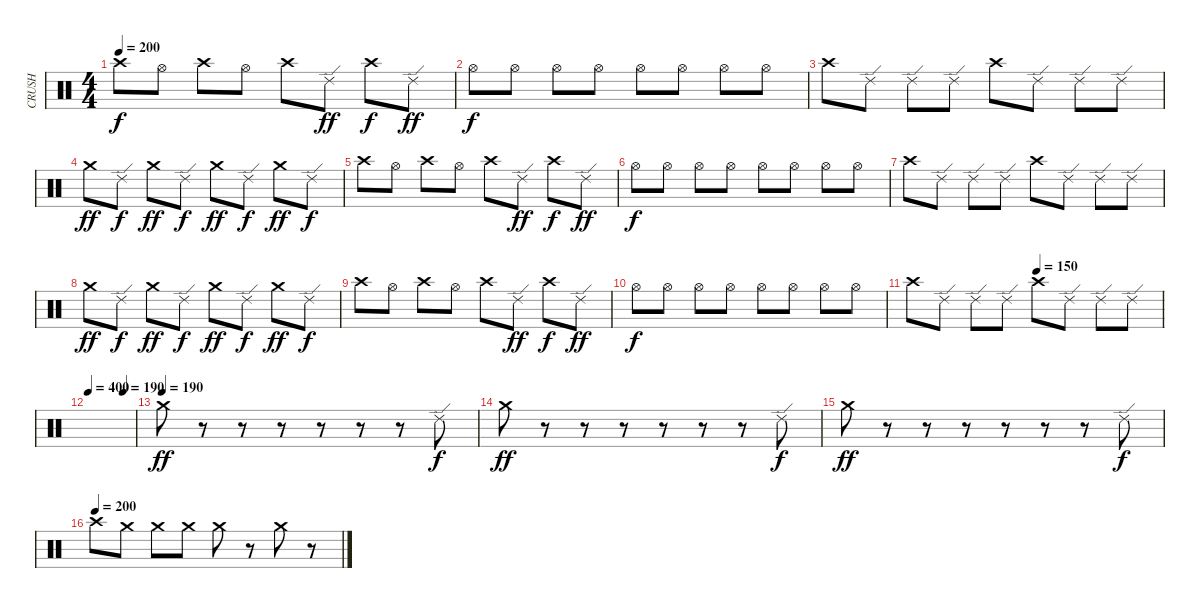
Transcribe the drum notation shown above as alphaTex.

\track ("CRUSH" "CRUSH") {instrument percussion}
\staff {score}
\articulation defaults
\ts (4 4)
\tempo 200
\clef neutral
\ks c "Crash high (hit)".8{dy f} "Hi-Hat (open)".8 "Crash high (hit)".8 "Hi-Hat (open)".8 "Crash high (hit)".8 "Ride (edge) 2".8{dy ff} "Crash high (hit)".8{dy f} "Ride (edge) 2".8{dy ff}
|
"Hi-Hat (open)".8{dy f} "Hi-Hat (open)".8 "Hi-Hat (open)".8 "Hi-Hat (open)".8 "Hi-Hat (open)".8 "Hi-Hat (open)".8 "Hi-Hat (open)".8 "Hi-Hat (open)".8 |
"Crash high (hit)".8 "Ride (edge) 2".8 "Ride (edge) 2".8 "Ride (edge) 2".8 "Crash high (hit)".8 "Ride (edge) 2".8 "Ride (edge) 2".8 "Ride (edge) 2".8 |
"Crash medium (hit)".8{dy ff} "Ride (edge) 2".8{dy f} "Crash medium (hit)".8{dy ff} "Ride (edge) 2".8{dy f} "Crash medium (hit)".8{dy ff} "Ride (edge) 2".8{dy f} "Crash medium (hit)".8{dy ff} "Ride (edge) 2".8{dy f} |
"Crash high (hit)".8 "Hi-Hat (open)".8 "Crash high (hit)".8 "Hi-Hat (open)".8 "Crash high (hit)".8 "Ride (edge) 2".8{dy ff} "Crash high (hit)".8{dy f} "Ride (edge) 2".8{dy ff} |
"Hi-Hat (open)".8{dy f} "Hi-Hat (open)".8 "Hi-Hat (open)".8 "Hi-Hat (open)".8 "Hi-Hat (open)".8 "Hi-Hat (open)".8 "Hi-Hat (open)".8 "Hi-Hat (open)".8 |
"Crash high (hit)".8 "Ride (edge) 2".8 "Ride (edge) 2".8 "Ride (edge) 2".8 "Crash high (hit)".8 "Ride (edge) 2".8 "Ride (edge) 2".8 "Ride (edge) 2".8 |
"Crash medium (hit)".8{dy ff} "Ride (edge) 2".8{dy f} "Crash medium (hit)".8{dy ff} "Ride (edge) 2".8{dy f} "Crash medium (hit)".8{dy ff} "Ride (edge) 2".8{dy f} "Crash medium (hit)".8{dy ff} "Ride (edge) 2".8{dy f} |
"Crash high (hit)".8 "Hi-Hat (open)".8 "Crash high (hit)".8 "Hi-Hat (open)".8 "Crash high (hit)".8 "Ride (edge) 2".8{dy ff} "Crash high (hit)".8{dy f} "Ride (edge) 2".8{dy ff} |
"Hi-Hat (open)".8{dy f} "Hi-Hat (open)".8 "Hi-Hat (open)".8 "Hi-Hat (open)".8 "Hi-Hat (open)".8 "Hi-Hat (open)".8 "Hi-Hat (open)".8 "Hi-Hat (open)".8 |
\tempo (150 0.5)
"Crash high (hit)".8 "Ride (edge) 2".8 "Ride (edge) 2".8 "Ride (edge) 2".8 "Crash high (hit)".8 "Ride (edge) 2".8 "Ride (edge) 2".8 "Ride (edge) 2".8 |
\tempo 400
\tempo (190 0.75)
|
\tempo (190)
"Crash medium (hit)".8{dy ff} r.8 r.8 r.8 r.8 r.8 r.8 "Ride (edge) 2".8{dy f} |
"Crash medium (hit)".8{dy ff} r.8 r.8 r.8 r.8 r.8 r.8 "Ride (edge) 2".8{dy f} |
"Crash medium (hit)".8{dy ff} r.8 r.8 r.8 r.8 r.8 r.8 "Ride (edge) 2".8{dy f} |
\tempo (200)
"Crash high (hit)".8 "Crash medium (hit)".8 "Crash medium (hit)".8 "Crash medium (hit)".8 "Crash medium (hit)".8 r.8 "Crash medium (hit)".8 r.8
